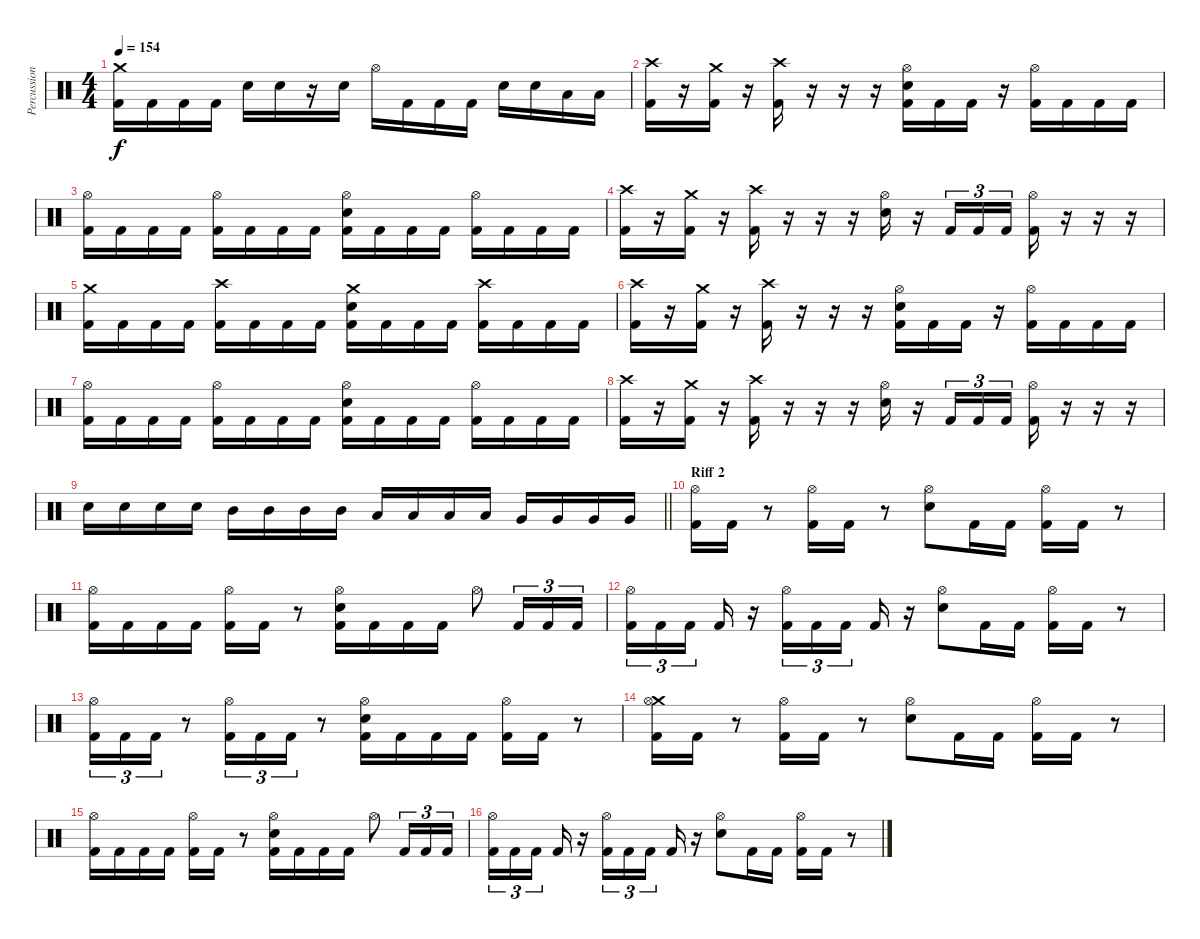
\track ("Percussion" "Percussion") {instrument percussion}
\staff {score}
\articulation defaults
\ts (4 4)
\tempo 154
\clef neutral
\ks c
("Crash medium (hit)" "Kick (hit) 2").16{dy f} "Kick (hit) 2".16 "Kick (hit) 2".16 "Kick (hit) 2".16 "Electric Snare (hit)".16 "Electric Snare (hit)".16 r.16 "Electric Snare (hit)".16 "Hi-Hat (open)".16 "Kick (hit) 2".16 "Kick (hit) 2".16 "Kick (hit) 2".16 "Electric Snare (hit)".16 "Electric Snare (hit)".16 "Low Tom (hit)".16 "Low Tom (hit)".16 |
("Crash high (hit)" "Kick (hit) 2").16 r.16 ("Crash medium (hit)" "Kick (hit) 2").16 r.16 ("Crash high (hit)" "Kick (hit) 2").16 r.16 r.16 r.16 ("Hi-Hat (open)" "Electric Snare (hit)" "Kick (hit) 2").16 "Kick (hit) 2".16 "Kick (hit) 2".16 r.16 ("Hi-Hat (open)" "Kick (hit) 2").16 "Kick (hit) 2".16 "Kick (hit) 2".16 "Kick (hit) 2".16 |
("Hi-Hat (open)" "Kick (hit) 2").16 "Kick (hit) 2".16 "Kick (hit) 2".16 "Kick (hit) 2".16 ("Hi-Hat (open)" "Kick (hit) 2").16 "Kick (hit) 2".16 "Kick (hit) 2".16 "Kick (hit) 2".16 ("Hi-Hat (open)" "Electric Snare (hit)" "Kick (hit) 2").16 "Kick (hit) 2".16 "Kick (hit) 2".16 "Kick (hit) 2".16 ("Hi-Hat (open)" "Kick (hit) 2").16 "Kick (hit) 2".16 "Kick (hit) 2".16 "Kick (hit) 2".16 |
("Crash high (hit)" "Kick (hit) 2").16 r.16 ("Crash medium (hit)" "Kick (hit) 2").16 r.16 ("Crash high (hit)" "Kick (hit) 2").16 r.16 r.16 r.16 ("Hi-Hat (open)" "Electric Snare (hit)").16 r.16 "Kick (hit) 2".16{tu (3 2)} "Kick (hit) 2".16{tu (3 2)} "Kick (hit) 2".16{tu (3 2)} ("Hi-Hat (open)" "Kick (hit) 2").16 r.16 r.16 r.16 |
("Crash medium (hit)" "Kick (hit) 2").16 "Kick (hit) 2".16 "Kick (hit) 2".16 "Kick (hit) 2".16 ("Crash high (hit)" "Kick (hit) 2").16 "Kick (hit) 2".16 "Kick (hit) 2".16 "Kick (hit) 2".16 ("Crash medium (hit)" "Electric Snare (hit)" "Kick (hit) 2").16 "Kick (hit) 2".16 "Kick (hit) 2".16 "Kick (hit) 2".16 ("Crash high (hit)" "Kick (hit) 2").16 "Kick (hit) 2".16 "Kick (hit) 2".16 "Kick (hit) 2".16 |
("Crash high (hit)" "Kick (hit) 2").16 r.16 ("Crash medium (hit)" "Kick (hit) 2").16 r.16 ("Crash high (hit)" "Kick (hit) 2").16 r.16 r.16 r.16 ("Hi-Hat (open)" "Electric Snare (hit)" "Kick (hit) 2").16 "Kick (hit) 2".16 "Kick (hit) 2".16 r.16 ("Hi-Hat (open)" "Kick (hit) 2").16 "Kick (hit) 2".16 "Kick (hit) 2".16 "Kick (hit) 2".16 |
("Hi-Hat (open)" "Kick (hit) 2").16 "Kick (hit) 2".16 "Kick (hit) 2".16 "Kick (hit) 2".16 ("Hi-Hat (open)" "Kick (hit) 2").16 "Kick (hit) 2".16 "Kick (hit) 2".16 "Kick (hit) 2".16 ("Hi-Hat (open)" "Electric Snare (hit)" "Kick (hit) 2").16 "Kick (hit) 2".16 "Kick (hit) 2".16 "Kick (hit) 2".16 ("Hi-Hat (open)" "Kick (hit) 2").16 "Kick (hit) 2".16 "Kick (hit) 2".16 "Kick (hit) 2".16 |
("Crash high (hit)" "Kick (hit) 2").16 r.16 ("Crash medium (hit)" "Kick (hit) 2").16 r.16 ("Crash high (hit)" "Kick (hit) 2").16 r.16 r.16 r.16 ("Hi-Hat (open)" "Electric Snare (hit)").16 r.16 "Kick (hit) 2".16{tu (3 2)} "Kick (hit) 2".16{tu (3 2)} "Kick (hit) 2".16{tu (3 2)} ("Hi-Hat (open)" "Kick (hit) 2").16 r.16 r.16 r.16 |
\barLineRight lightlight "Electric Snare (hit)".16 "Electric Snare (hit)".16 "Electric Snare (hit)".16 "Electric Snare (hit)".16 "Mid Tom (hit)".16 "Mid Tom (hit)".16 "Mid Tom (hit)".16 "Mid Tom (hit)".16 "Low Tom (hit)".16 "Low Tom (hit)".16 "Low Tom (hit)".16 "Low Tom (hit)".16 "Very Low Tom (hit)".16 "Very Low Tom (hit)".16 "Very Low Tom (hit)".16 "Very Low Tom (hit)".16
|
\section ("" "Riff 2")
("Hi-Hat (open)" "Kick (hit) 2").16 "Kick (hit) 2".16 r.8 ("Hi-Hat (open)" "Kick (hit) 2").16 "Kick (hit) 2".16 r.8 ("Hi-Hat (open)" "Electric Snare (hit)").8 "Kick (hit) 2".16 "Kick (hit) 2".16 ("Hi-Hat (open)" "Kick (hit) 2").16 "Kick (hit) 2".16 r.8 |
("Hi-Hat (open)" "Kick (hit) 2").16 "Kick (hit) 2".16 "Kick (hit) 2".16 "Kick (hit) 2".16 ("Hi-Hat (open)" "Kick (hit) 2").16 "Kick (hit) 2".16 r.8 ("Hi-Hat (open)" "Electric Snare (hit)" "Kick (hit) 2").16 "Kick (hit) 2".16 "Kick (hit) 2".16 "Kick (hit) 2".16 "Hi-Hat (open)".8 "Kick (hit) 2".16{tu (3 2)} "Kick (hit) 2".16{tu (3 2)} "Kick (hit) 2".16{tu (3 2)} |
("Hi-Hat (open)" "Kick (hit) 2").16{tu (3 2)} "Kick (hit) 2".16{tu (3 2)} "Kick (hit) 2".16{tu (3 2) beam splitsecondary} "Kick (hit) 2".16 r.16 ("Hi-Hat (open)" "Kick (hit) 2").16{tu (3 2)} "Kick (hit) 2".16{tu (3 2)} "Kick (hit) 2".16{tu (3 2) beam splitsecondary} "Kick (hit) 2".16 r.16 ("Hi-Hat (open)" "Electric Snare (hit)").8 "Kick (hit) 2".16 "Kick (hit) 2".16 ("Hi-Hat (open)" "Kick (hit) 2").16 "Kick (hit) 2".16 r.8 |
("Hi-Hat (open)" "Kick (hit) 2").16{tu (3 2)} "Kick (hit) 2".16{tu (3 2)} "Kick (hit) 2".16{tu (3 2)} r.8 ("Hi-Hat (open)" "Kick (hit) 2").16{tu (3 2)} "Kick (hit) 2".16{tu (3 2)} "Kick (hit) 2".16{tu (3 2)} r.8 ("Hi-Hat (open)" "Electric Snare (hit)" "Kick (hit) 2").16 "Kick (hit) 2".16 "Kick (hit) 2".16 "Kick (hit) 2".16 ("Hi-Hat (open)" "Kick (hit) 2").16 "Kick (hit) 2".16 r.8 |
("Crash medium (hit)" "Hi-Hat (open)" "Kick (hit) 2").16 "Kick (hit) 2".16 r.8 ("Hi-Hat (open)" "Kick (hit) 2").16 "Kick (hit) 2".16 r.8 ("Hi-Hat (open)" "Electric Snare (hit)").8 "Kick (hit) 2".16 "Kick (hit) 2".16 ("Hi-Hat (open)" "Kick (hit) 2").16 "Kick (hit) 2".16 r.8 |
("Hi-Hat (open)" "Kick (hit) 2").16 "Kick (hit) 2".16 "Kick (hit) 2".16 "Kick (hit) 2".16 ("Hi-Hat (open)" "Kick (hit) 2").16 "Kick (hit) 2".16 r.8 ("Hi-Hat (open)" "Electric Snare (hit)" "Kick (hit) 2").16 "Kick (hit) 2".16 "Kick (hit) 2".16 "Kick (hit) 2".16 "Hi-Hat (open)".8 "Kick (hit) 2".16{tu (3 2)} "Kick (hit) 2".16{tu (3 2)} "Kick (hit) 2".16{tu (3 2)} |
("Hi-Hat (open)" "Kick (hit) 2").16{tu (3 2)} "Kick (hit) 2".16{tu (3 2)} "Kick (hit) 2".16{tu (3 2) beam splitsecondary} "Kick (hit) 2".16 r.16 ("Hi-Hat (open)" "Kick (hit) 2").16{tu (3 2)} "Kick (hit) 2".16{tu (3 2)} "Kick (hit) 2".16{tu (3 2) beam splitsecondary} "Kick (hit) 2".16 r.16 ("Hi-Hat (open)" "Electric Snare (hit)").8 "Kick (hit) 2".16 "Kick (hit) 2".16 ("Hi-Hat (open)" "Kick (hit) 2").16 "Kick (hit) 2".16 r.8
